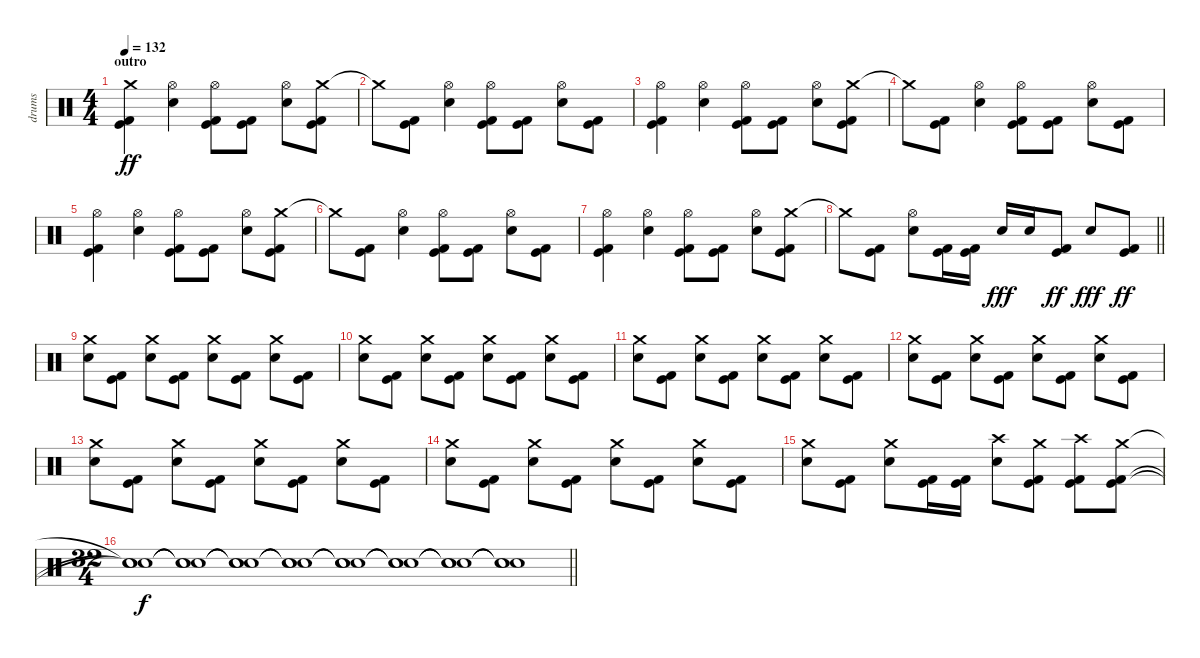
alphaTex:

\track ("drums" "drums") {instrument percussion}
\staff {score}
\articulation defaults
\ts (4 4)
\section ("" "outro")
\tempo 132
\clef neutral
\ks c
("Crash medium (hit)" "Kick (hit)" "Kick (hit) 2").4{dy ff} ("Electric Snare (hit)" "Hi-Hat (open)").4 ("Hi-Hat (open)" "Kick (hit)" "Kick (hit) 2").8 ("Kick (hit)" "Kick (hit) 2").8 ("Electric Snare (hit)" "Hi-Hat (open)").8 ("Crash medium (hit)" "Kick (hit)" "Kick (hit) 2").8 |
"Crash medium (hit)"{t}.8 ("Kick (hit)" "Kick (hit) 2").8 ("Electric Snare (hit)" "Hi-Hat (open)").4 ("Hi-Hat (open)" "Kick (hit)" "Kick (hit) 2").8 ("Kick (hit)" "Kick (hit) 2").8 ("Electric Snare (hit)" "Hi-Hat (open)").8 ("Kick (hit)" "Kick (hit) 2").8 |
("Hi-Hat (open)" "Kick (hit)" "Kick (hit) 2").4 ("Electric Snare (hit)" "Hi-Hat (open)").4 ("Hi-Hat (open)" "Kick (hit)" "Kick (hit) 2").8 ("Kick (hit)" "Kick (hit) 2").8 ("Electric Snare (hit)" "Hi-Hat (open)").8 ("Crash medium (hit)" "Kick (hit)" "Kick (hit) 2").8 |
"Crash medium (hit)"{t}.8 ("Kick (hit)" "Kick (hit) 2").8 ("Electric Snare (hit)" "Hi-Hat (open)").4 ("Hi-Hat (open)" "Kick (hit)" "Kick (hit) 2").8 ("Kick (hit)" "Kick (hit) 2").8 ("Electric Snare (hit)" "Hi-Hat (open)").8 ("Kick (hit)" "Kick (hit) 2").8 |
("Hi-Hat (open)" "Kick (hit)" "Kick (hit) 2").4 ("Electric Snare (hit)" "Hi-Hat (open)").4 ("Hi-Hat (open)" "Kick (hit)" "Kick (hit) 2").8 ("Kick (hit)" "Kick (hit) 2").8 ("Electric Snare (hit)" "Hi-Hat (open)").8 ("Crash medium (hit)" "Kick (hit)" "Kick (hit) 2").8 |
"Crash medium (hit)"{t}.8 ("Kick (hit)" "Kick (hit) 2").8 ("Electric Snare (hit)" "Hi-Hat (open)").4 ("Hi-Hat (open)" "Kick (hit)" "Kick (hit) 2").8 ("Kick (hit)" "Kick (hit) 2").8 ("Electric Snare (hit)" "Hi-Hat (open)").8 ("Kick (hit)" "Kick (hit) 2").8 |
("Hi-Hat (open)" "Kick (hit)" "Kick (hit) 2").4 ("Electric Snare (hit)" "Hi-Hat (open)").4 ("Hi-Hat (open)" "Kick (hit)" "Kick (hit) 2").8 ("Kick (hit)" "Kick (hit) 2").8 ("Electric Snare (hit)" "Hi-Hat (open)").8 ("Crash medium (hit)" "Kick (hit)" "Kick (hit) 2").8 |
\barLineRight lightlight "Crash medium (hit)"{t}.8
("Kick (hit)" "Kick (hit) 2").8 ("Electric Snare (hit)" "Hi-Hat (open)").8 ("Kick (hit)" "Kick (hit) 2").16 ("Kick (hit)" "Kick (hit) 2").16 "Electric Snare (hit)".16{dy fff} "Electric Snare (hit)".16 ("Kick (hit)" "Kick (hit) 2").8{dy ff} "Electric Snare (hit)".8{dy fff} ("Kick (hit)" "Kick (hit) 2").8{dy ff} |
\section ("" "")
("Crash medium (hit)" "Electric Snare (hit)").8 ("Kick (hit)" "Kick (hit) 2").8 ("Crash medium (hit)" "Electric Snare (hit)").8 ("Kick (hit)" "Kick (hit) 2").8 ("Crash medium (hit)" "Electric Snare (hit)").8 ("Kick (hit)" "Kick (hit) 2").8 ("Crash medium (hit)" "Electric Snare (hit)").8 ("Kick (hit)" "Kick (hit) 2").8 |
("Crash medium (hit)" "Electric Snare (hit)").8 ("Kick (hit)" "Kick (hit) 2").8 ("Crash medium (hit)" "Electric Snare (hit)").8 ("Kick (hit)" "Kick (hit) 2").8 ("Crash medium (hit)" "Electric Snare (hit)").8 ("Kick (hit)" "Kick (hit) 2").8 ("Crash medium (hit)" "Electric Snare (hit)").8 ("Kick (hit)" "Kick (hit) 2").8 |
("Crash medium (hit)" "Electric Snare (hit)").8 ("Kick (hit)" "Kick (hit) 2").8 ("Crash medium (hit)" "Electric Snare (hit)").8 ("Kick (hit)" "Kick (hit) 2").8 ("Crash medium (hit)" "Electric Snare (hit)").8 ("Kick (hit)" "Kick (hit) 2").8 ("Crash medium (hit)" "Electric Snare (hit)").8 ("Kick (hit)" "Kick (hit) 2").8 |
("Crash medium (hit)" "Electric Snare (hit)").8 ("Kick (hit)" "Kick (hit) 2").8 ("Crash medium (hit)" "Electric Snare (hit)").8 ("Kick (hit)" "Kick (hit) 2").8 ("Crash medium (hit)" "Electric Snare (hit)").8 ("Kick (hit)" "Kick (hit) 2").8 ("Crash medium (hit)" "Electric Snare (hit)").8 ("Kick (hit)" "Kick (hit) 2").8 |
("Crash medium (hit)" "Electric Snare (hit)").8 ("Kick (hit)" "Kick (hit) 2").8 ("Crash medium (hit)" "Electric Snare (hit)").8 ("Kick (hit)" "Kick (hit) 2").8 ("Crash medium (hit)" "Electric Snare (hit)").8 ("Kick (hit)" "Kick (hit) 2").8 ("Crash medium (hit)" "Electric Snare (hit)").8 ("Kick (hit)" "Kick (hit) 2").8 |
("Crash medium (hit)" "Electric Snare (hit)").8 ("Kick (hit)" "Kick (hit) 2").8 ("Crash medium (hit)" "Electric Snare (hit)").8 ("Kick (hit)" "Kick (hit) 2").8 ("Crash medium (hit)" "Electric Snare (hit)").8 ("Kick (hit)" "Kick (hit) 2").8 ("Crash medium (hit)" "Electric Snare (hit)").8 ("Kick (hit)" "Kick (hit) 2").8 |
("Crash medium (hit)" "Electric Snare (hit)").8 ("Kick (hit)" "Kick (hit) 2").8 ("Crash medium (hit)" "Electric Snare (hit)").8 ("Kick (hit)" "Kick (hit) 2").16 ("Kick (hit)" "Kick (hit) 2").16 ("Crash high (hit)" "Electric Snare (hit)").8 ("Crash medium (hit)" "Kick (hit)" "Kick (hit) 2").8 ("Crash high (hit)" "Kick (hit)" "Kick (hit) 2").8 ("Crash medium (hit)" "Kick (hit)" "Kick (hit) 2").8 |
\ts (32 4)
\barLineRight lightlight
("Snare (hit)"{t} "Snare (hit)"{t} "Snare (hit)"{t}).1{dy f} ("Snare (hit)"{t} "Snare (hit)"{t} "Snare (hit)"{t}).1{volume 8} ("Snare (hit)"{t} "Snare (hit)"{t} "Snare (hit)"{t}).1 ("Snare (hit)"{t} "Snare (hit)"{t} "Snare (hit)"{t}).1 ("Snare (hit)"{t} "Snare (hit)"{t} "Snare (hit)"{t}).1{volume 0} ("Snare (hit)"{t} "Snare (hit)"{t} "Snare (hit)"{t}).1 ("Snare (hit)"{t} "Snare (hit)"{t} "Snare (hit)"{t}).1 ("Snare (hit)"{t} "Snare (hit)"{t} "Snare (hit)"{t}).1
